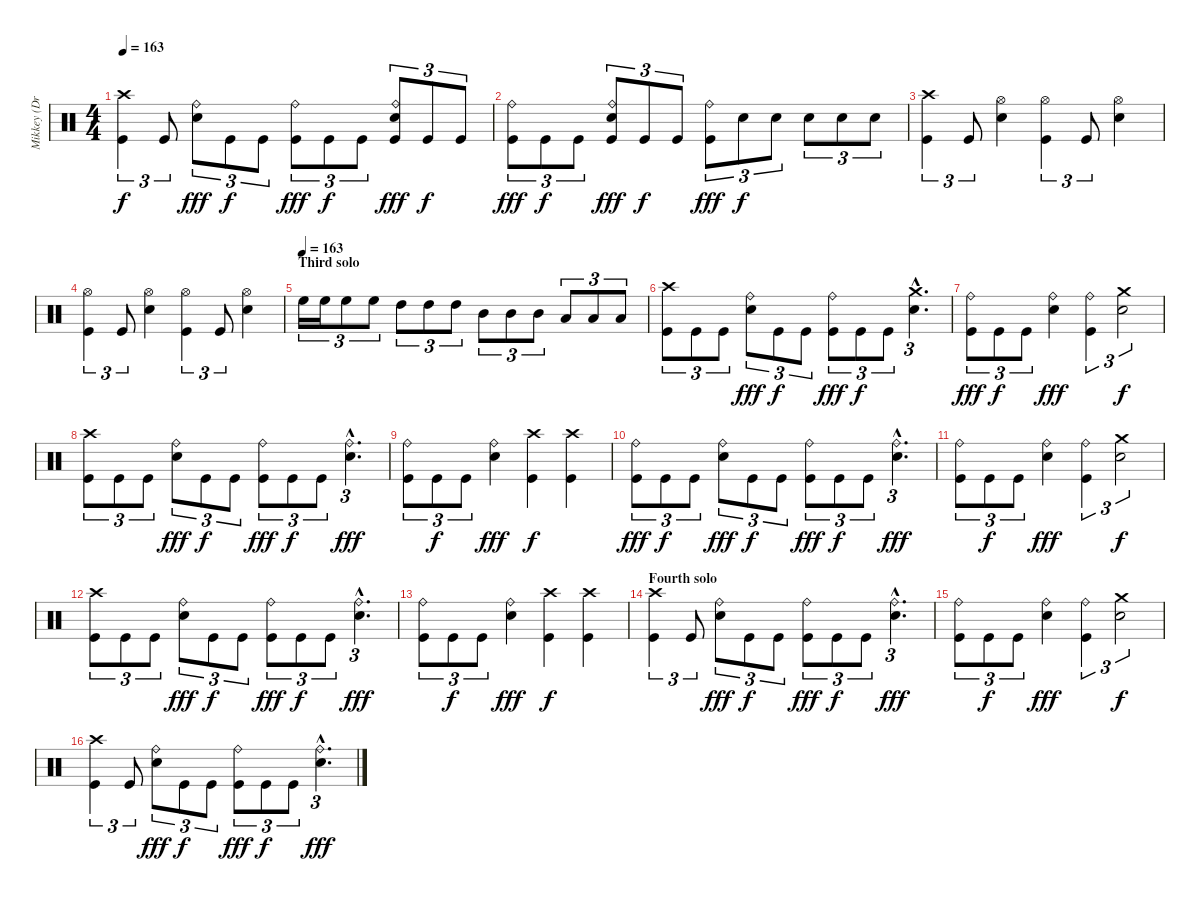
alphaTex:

\track ("Mikkey (Drums)" "Mikkey (Dr") {instrument percussion}
\staff {score}
\articulation defaults
\ts (4 4)
\tempo 163
\clef neutral
\ks c
("Crash high (hit)" "Kick (hit)").4{tu (3 2) dy f} "Kick (hit)".8{tu (3 2)} ("Ride (bell)" "Electric Snare (hit)").8{tu (3 2) dy fff} "Kick (hit)".8{tu (3 2) dy f} "Kick (hit)".8{tu (3 2)} ("Ride (bell)" "Kick (hit)").8{tu (3 2) dy fff} "Kick (hit)".8{tu (3 2) dy f} "Kick (hit)".8{tu (3 2)} ("Ride (bell)" "Electric Snare (hit)" "Kick (hit)").8{tu (3 2) dy fff} "Kick (hit)".8{tu (3 2) dy f} "Kick (hit)".8{tu (3 2)} |
("Ride (bell)" "Kick (hit)").8{tu (3 2) dy fff} "Kick (hit)".8{tu (3 2) dy f} "Kick (hit)".8{tu (3 2)} ("Ride (bell)" "Electric Snare (hit)" "Kick (hit)").8{tu (3 2) dy fff} "Kick (hit)".8{tu (3 2) dy f} "Kick (hit)".8{tu (3 2)} ("Ride (bell)" "Kick (hit)").8{tu (3 2) dy fff} "Electric Snare (hit)".8{tu (3 2) dy f} "Electric Snare (hit)".8{tu (3 2)} "Electric Snare (hit)".8{tu (3 2)} "Electric Snare (hit)".8{tu (3 2)} "Electric Snare (hit)".8{tu (3 2)} |
("Crash high (hit)" "Kick (hit)").4{tu (3 2)} "Kick (hit)".8{tu (3 2)} ("Hi-Hat (open)" "Electric Snare (hit)").4 ("Hi-Hat (open)" "Kick (hit)").4{tu (3 2)} "Kick (hit)".8{tu (3 2)} ("Hi-Hat (open)" "Electric Snare (hit)").4 |
("Hi-Hat (open)" "Kick (hit)").4{tu (3 2)} "Kick (hit)".8{tu (3 2)} ("Hi-Hat (open)" "Electric Snare (hit)").4 ("Hi-Hat (open)" "Kick (hit)").4{tu (3 2)} "Kick (hit)".8{tu (3 2)} ("Hi-Hat (open)" "Electric Snare (hit)").4 |
\section ("" "Third solo")
\tempo (163)
"High Floor Tom (hit)".16{tu (3 2)} "High Floor Tom (hit)".16{tu (3 2)} "High Floor Tom (hit)".8{tu (3 2)} "High Floor Tom (hit)".8{tu (3 2)} "High Tom (hit)".8{tu (3 2)} "High Tom (hit)".8{tu (3 2)} "High Tom (hit)".8{tu (3 2)} "Mid Tom (hit)".8{tu (3 2)} "Mid Tom (hit)".8{tu (3 2)} "Mid Tom (hit)".8{tu (3 2)} "Low Tom (hit)".8{tu (3 2)} "Low Tom (hit)".8{tu (3 2)} "Low Tom (hit)".8{tu (3 2)} |
("Crash high (hit)" "Kick (hit)").8{tu (3 2)} "Kick (hit)".8{tu (3 2)} "Kick (hit)".8{tu (3 2)} ("Ride (bell)" "Electric Snare (hit)").8{tu (3 2) dy fff} "Kick (hit)".8{tu (3 2) dy f} "Kick (hit)".8{tu (3 2)} ("Ride (bell)" "Kick (hit)").8{tu (3 2) dy fff} "Kick (hit)".8{tu (3 2) dy f} "Kick (hit)".8{tu (3 2)} ("Crash medium (hit)"{hac} "Electric Snare (hit)"{hac}).4{d tu (3 2)} |
("Ride (bell)" "Kick (hit)").8{tu (3 2) dy fff} "Kick (hit)".8{tu (3 2) dy f} "Kick (hit)".8{tu (3 2)} ("Ride (bell)" "Electric Snare (hit)").4{dy fff} ("Ride (bell)" "Kick (hit)").4{tu (3 2)} ("Crash medium (hit)" "Electric Snare (hit)").2{tu (3 2) dy f} |
("Crash high (hit)" "Kick (hit)").8{tu (3 2)} "Kick (hit)".8{tu (3 2)} "Kick (hit)".8{tu (3 2)} ("Ride (bell)" "Electric Snare (hit)").8{tu (3 2) dy fff} "Kick (hit)".8{tu (3 2) dy f} "Kick (hit)".8{tu (3 2)} ("Ride (bell)" "Kick (hit)").8{tu (3 2) dy fff} "Kick (hit)".8{tu (3 2) dy f} "Kick (hit)".8{tu (3 2)} ("Ride (bell)"{hac} "Electric Snare (hit)"{hac}).4{d tu (3 2) dy fff} |
("Ride (bell)" "Kick (hit)").8{tu (3 2)} "Kick (hit)".8{tu (3 2) dy f} "Kick (hit)".8{tu (3 2)} ("Ride (bell)" "Electric Snare (hit)").4{dy fff} ("Crash high (hit)" "Kick (hit)").4{dy f} ("Crash high (hit)" "Kick (hit)").4 |
("Ride (bell)" "Kick (hit)").8{tu (3 2) dy fff} "Kick (hit)".8{tu (3 2) dy f} "Kick (hit)".8{tu (3 2)} ("Ride (bell)" "Electric Snare (hit)").8{tu (3 2) dy fff} "Kick (hit)".8{tu (3 2) dy f} "Kick (hit)".8{tu (3 2)} ("Ride (bell)" "Kick (hit)").8{tu (3 2) dy fff} "Kick (hit)".8{tu (3 2) dy f} "Kick (hit)".8{tu (3 2)} ("Ride (bell)"{hac} "Electric Snare (hit)"{hac}).4{d tu (3 2) dy fff} |
("Ride (bell)" "Kick (hit)").8{tu (3 2)} "Kick (hit)".8{tu (3 2) dy f} "Kick (hit)".8{tu (3 2)} ("Ride (bell)" "Electric Snare (hit)").4{dy fff} ("Ride (bell)" "Kick (hit)").4{tu (3 2)} ("Crash medium (hit)" "Electric Snare (hit)").2{tu (3 2) dy f} |
("Crash high (hit)" "Kick (hit)").8{tu (3 2)} "Kick (hit)".8{tu (3 2)} "Kick (hit)".8{tu (3 2)} ("Ride (bell)" "Electric Snare (hit)").8{tu (3 2) dy fff} "Kick (hit)".8{tu (3 2) dy f} "Kick (hit)".8{tu (3 2)} ("Ride (bell)" "Kick (hit)").8{tu (3 2) dy fff} "Kick (hit)".8{tu (3 2) dy f} "Kick (hit)".8{tu (3 2)} ("Ride (bell)"{hac} "Electric Snare (hit)"{hac}).4{d tu (3 2) dy fff} |
("Ride (bell)" "Kick (hit)").8{tu (3 2)} "Kick (hit)".8{tu (3 2) dy f} "Kick (hit)".8{tu (3 2)} ("Ride (bell)" "Electric Snare (hit)").4{dy fff} ("Crash high (hit)" "Kick (hit)").4{dy f} ("Crash high (hit)" "Kick (hit)").4 |
\section ("" "Fourth solo")
("Crash high (hit)" "Kick (hit)").4{tu (3 2)} "Kick (hit)".8{tu (3 2)} ("Ride (bell)" "Electric Snare (hit)").8{tu (3 2) dy fff} "Kick (hit)".8{tu (3 2) dy f} "Kick (hit)".8{tu (3 2)} ("Ride (bell)" "Kick (hit)").8{tu (3 2) dy fff} "Kick (hit)".8{tu (3 2) dy f} "Kick (hit)".8{tu (3 2)} ("Ride (bell)"{hac} "Electric Snare (hit)"{hac}).4{d tu (3 2) dy fff} |
("Ride (bell)" "Kick (hit)").8{tu (3 2)} "Kick (hit)".8{tu (3 2) dy f} "Kick (hit)".8{tu (3 2)} ("Ride (bell)" "Electric Snare (hit)").4{dy fff} ("Ride (bell)" "Kick (hit)").4{tu (3 2)} ("Crash medium (hit)" "Electric Snare (hit)").2{tu (3 2) dy f} |
("Crash high (hit)" "Kick (hit)").4{tu (3 2)} "Kick (hit)".8{tu (3 2)} ("Ride (bell)" "Electric Snare (hit)").8{tu (3 2) dy fff} "Kick (hit)".8{tu (3 2) dy f} "Kick (hit)".8{tu (3 2)} ("Ride (bell)" "Kick (hit)").8{tu (3 2) dy fff} "Kick (hit)".8{tu (3 2) dy f} "Kick (hit)".8{tu (3 2)} ("Ride (bell)"{hac} "Electric Snare (hit)"{hac}).4{d tu (3 2) dy fff}
